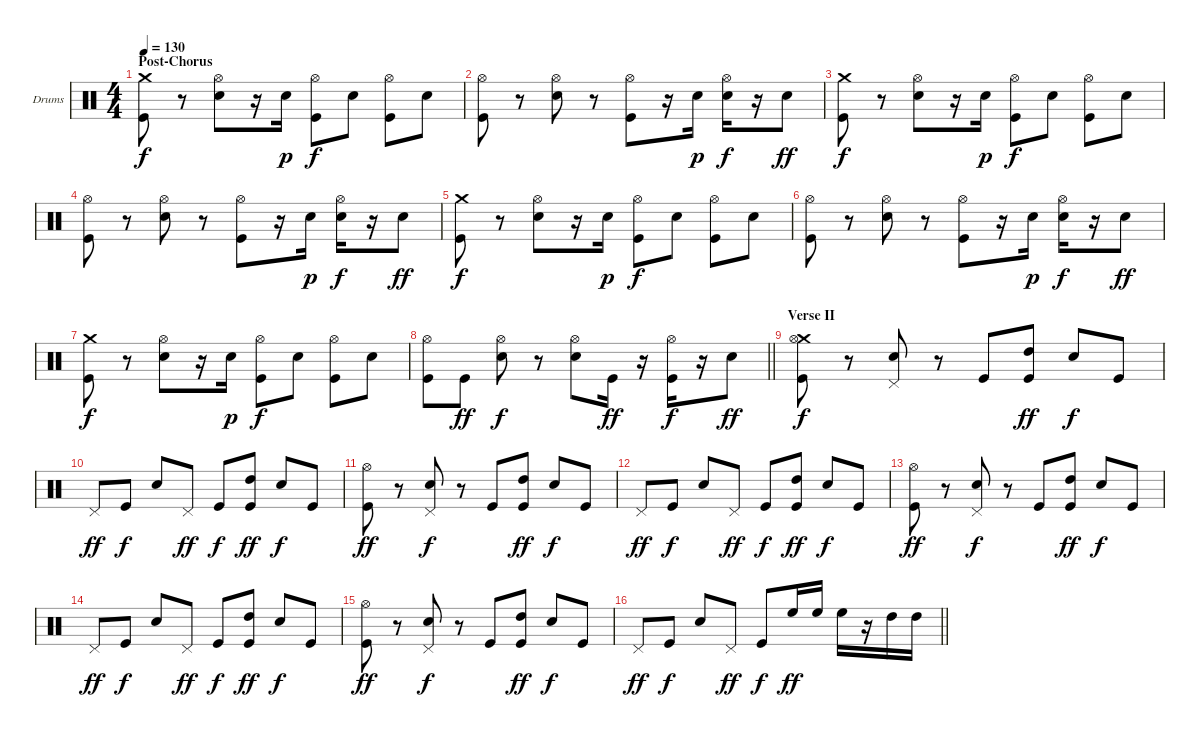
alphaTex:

\bracketExtendMode groupsimilarinstruments
\firstSystemTrackNameOrientation horizontal
\otherSystemsTrackNameOrientation horizontal
\track ("Drumkit" "Drums") {instrument percussion}
\staff {score}
\articulation defaults
\ts (4 4)
\section ("" "Post-Chorus")
\tempo 130
\clef neutral
\ks c
("Crash medium (hit)" "Kick (hit)").8{dy f} r.8 ("Hi-Hat (open)" "Snare (hit) 2").8 r.16 "Snare (hit) 2".16{dy p} ("Hi-Hat (open)" "Kick (hit)").8{dy f} "Snare (hit) 2".8 ("Hi-Hat (open)" "Kick (hit)").8 "Snare (hit) 2".8 |
("Hi-Hat (open)" "Kick (hit)").8 r.8 ("Hi-Hat (open)" "Snare (hit) 2").8 r.8 ("Hi-Hat (open)" "Kick (hit)").8 r.16 "Snare (hit) 2".16{dy p} ("Hi-Hat (open)" "Snare (hit) 2").16{dy f} r.16 "Snare (hit) 2".8{dy ff} |
("Crash medium (hit)" "Kick (hit)").8{dy f} r.8 ("Hi-Hat (open)" "Snare (hit) 2").8 r.16 "Snare (hit) 2".16{dy p} ("Hi-Hat (open)" "Kick (hit)").8{dy f} "Snare (hit) 2".8 ("Hi-Hat (open)" "Kick (hit)").8 "Snare (hit) 2".8 |
("Hi-Hat (open)" "Kick (hit)").8 r.8 ("Hi-Hat (open)" "Snare (hit) 2").8 r.8 ("Hi-Hat (open)" "Kick (hit)").8 r.16 "Snare (hit) 2".16{dy p} ("Hi-Hat (open)" "Snare (hit) 2").16{dy f} r.16 "Snare (hit) 2".8{dy ff} |
("Crash medium (hit)" "Kick (hit)").8{dy f} r.8 ("Hi-Hat (open)" "Snare (hit) 2").8 r.16 "Snare (hit) 2".16{dy p} ("Hi-Hat (open)" "Kick (hit)").8{dy f} "Snare (hit) 2".8 ("Hi-Hat (open)" "Kick (hit)").8 "Snare (hit) 2".8 |
("Hi-Hat (open)" "Kick (hit)").8 r.8 ("Hi-Hat (open)" "Snare (hit) 2").8 r.8 ("Hi-Hat (open)" "Kick (hit)").8 r.16 "Snare (hit) 2".16{dy p} ("Hi-Hat (open)" "Snare (hit) 2").16{dy f} r.16 "Snare (hit) 2".8{dy ff} |
("Crash medium (hit)" "Kick (hit)").8{dy f} r.8 ("Hi-Hat (open)" "Snare (hit) 2").8 r.16 "Snare (hit) 2".16{dy p} ("Hi-Hat (open)" "Kick (hit)").8{dy f} "Snare (hit) 2".8 ("Hi-Hat (open)" "Kick (hit)").8 "Snare (hit) 2".8 |
\barLineRight lightlight
("Hi-Hat (open)" "Kick (hit)").8 "Kick (hit)".8{dy ff} ("Hi-Hat (open)" "Snare (hit) 2").8{dy f} r.8 ("Hi-Hat (open)" "Snare (hit) 2").8 "Kick (hit)".16{dy ff} r.16 ("Hi-Hat (open)" "Kick (hit)").16{dy f} r.16 "Snare (hit) 2".8{dy ff} |
\section ("" "Verse II")
("Crash medium (hit)" "Hi-Hat (open)" "Kick (hit)").8{dy f} r.8 ("Pedal Hi-Hat (hit)" "Snare (hit) 2").8 r.8 "Kick (hit)".8 ("High Tom (hit)" "Kick (hit)").8{dy ff} "Snare (hit) 2".8{dy f} "Kick (hit)".8 |
"Pedal Hi-Hat (hit)".8{dy ff} "Kick (hit)".8{dy f} "Snare (hit) 2".8 "Pedal Hi-Hat (hit)".8{dy ff} "Kick (hit)".8{dy f} ("High Tom (hit)" "Kick (hit)").8{dy ff} "Snare (hit) 2".8{dy f} "Kick (hit)".8 |
("Hi-Hat (open)" "Kick (hit)").8{dy ff} r.8 ("Pedal Hi-Hat (hit)" "Snare (hit) 2").8{dy f} r.8 "Kick (hit)".8 ("High Tom (hit)" "Kick (hit)").8{dy ff} "Snare (hit) 2".8{dy f} "Kick (hit)".8 |
"Pedal Hi-Hat (hit)".8{dy ff} "Kick (hit)".8{dy f} "Snare (hit) 2".8 "Pedal Hi-Hat (hit)".8{dy ff} "Kick (hit)".8{dy f} ("High Tom (hit)" "Kick (hit)").8{dy ff} "Snare (hit) 2".8{dy f} "Kick (hit)".8 |
("Hi-Hat (open)" "Kick (hit)").8{dy ff} r.8 ("Pedal Hi-Hat (hit)" "Snare (hit) 2").8{dy f} r.8 "Kick (hit)".8 ("High Tom (hit)" "Kick (hit)").8{dy ff} "Snare (hit) 2".8{dy f} "Kick (hit)".8 |
"Pedal Hi-Hat (hit)".8{dy ff} "Kick (hit)".8{dy f} "Snare (hit) 2".8 "Pedal Hi-Hat (hit)".8{dy ff} "Kick (hit)".8{dy f} ("High Tom (hit)" "Kick (hit)").8{dy ff} "Snare (hit) 2".8{dy f} "Kick (hit)".8 |
("Hi-Hat (open)" "Kick (hit)").8{dy ff} r.8 ("Pedal Hi-Hat (hit)" "Snare (hit) 2").8{dy f} r.8 "Kick (hit)".8 ("High Tom (hit)" "Kick (hit)").8{dy ff} "Snare (hit) 2".8{dy f} "Kick (hit)".8 |
\barLineRight lightlight "Pedal Hi-Hat (hit)".8{dy ff} "Kick (hit)".8{dy f} "Snare (hit) 2".8 "Pedal Hi-Hat (hit)".8{dy ff} "Kick (hit)".8{dy f} "High Floor Tom (hit)".16{dy ff} "High Floor Tom (hit)".16 "High Floor Tom (hit)".16
r.16 "High Tom (hit)".16 "High Tom (hit)".16
